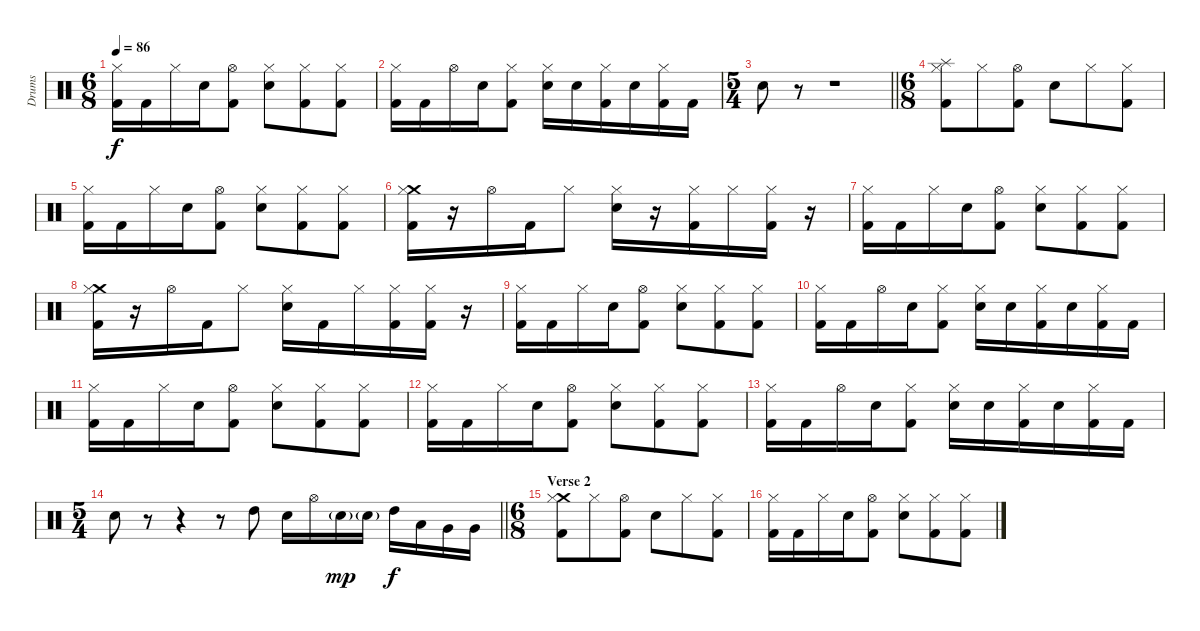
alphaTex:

\track ("Drums" "Drums") {instrument percussion}
\staff {score}
\articulation defaults
\ts (6 8)
\tempo 86
\clef neutral
\ks c
("Hi-Hat (closed)" "Kick (hit) 2").16{dy f} "Kick (hit) 2".16 "Hi-Hat (closed)".16 "Electric Snare (hit)".16 ("Hi-Hat (open)" "Kick (hit) 2").8 ("Hi-Hat (closed)" "Electric Snare (hit)").8 ("Hi-Hat (closed)" "Kick (hit) 2").8 ("Hi-Hat (closed)" "Kick (hit) 2").8 |
("Hi-Hat (closed)" "Kick (hit) 2").16 "Kick (hit) 2".16 "Hi-Hat (open)".16 "Electric Snare (hit)".16 ("Hi-Hat (closed)" "Kick (hit) 2").8 ("Hi-Hat (closed)" "Electric Snare (hit)").16 "Electric Snare (hit)".16 ("Hi-Hat (closed)" "Kick (hit) 2").16 "Electric Snare (hit)".16 ("Hi-Hat (closed)" "Kick (hit) 2").16 "Kick (hit) 2".16 |
\ts (5 4)
\barLineRight lightlight "Electric Snare (hit)".8
r.8 r.1 |
\ts (6 8)
("Splash (hit)" "Hi-Hat (closed)" "Kick (hit) 2").8 "Hi-Hat (closed)".8 ("Hi-Hat (open)" "Kick (hit) 2").8 "Electric Snare (hit)".8 "Hi-Hat (closed)".8 ("Hi-Hat (closed)" "Kick (hit) 2").8 |
("Hi-Hat (closed)" "Kick (hit) 2").16 "Kick (hit) 2".16 "Hi-Hat (closed)".16 "Electric Snare (hit)".16 ("Hi-Hat (open)" "Kick (hit) 2").8 ("Hi-Hat (closed)" "Electric Snare (hit)").8 ("Hi-Hat (closed)" "Kick (hit) 2").8 ("Hi-Hat (closed)" "Kick (hit) 2").8 |
("Crash medium (hit)" "Hi-Hat (closed)" "Kick (hit) 2").16 r.16 "Hi-Hat (open)".16 "Kick (hit) 2".16 "Hi-Hat (closed)".8 ("Hi-Hat (closed)" "Electric Snare (hit)").16 r.16 ("Hi-Hat (closed)" "Kick (hit) 2").16 "Hi-Hat (closed)".16 ("Hi-Hat (closed)" "Kick (hit) 2").16 r.16 |
("Hi-Hat (closed)" "Kick (hit) 2").16 "Kick (hit) 2".16 "Hi-Hat (closed)".16 "Electric Snare (hit)".16 ("Hi-Hat (open)" "Kick (hit) 2").8 ("Hi-Hat (closed)" "Electric Snare (hit)").8 ("Hi-Hat (closed)" "Kick (hit) 2").8 ("Hi-Hat (closed)" "Kick (hit) 2").8 |
("Crash medium (hit)" "Hi-Hat (closed)" "Kick (hit) 2").16 r.16 "Hi-Hat (open)".16 "Kick (hit) 2".16 "Hi-Hat (closed)".8 ("Hi-Hat (closed)" "Electric Snare (hit)").16 "Kick (hit) 2".16 "Hi-Hat (closed)".16 ("Hi-Hat (closed)" "Kick (hit) 2").16 ("Hi-Hat (closed)" "Kick (hit) 2").16 r.16 |
("Hi-Hat (closed)" "Kick (hit) 2").16 "Kick (hit) 2".16 "Hi-Hat (closed)".16 "Electric Snare (hit)".16 ("Hi-Hat (open)" "Kick (hit) 2").8 ("Hi-Hat (closed)" "Electric Snare (hit)").8 ("Hi-Hat (closed)" "Kick (hit) 2").8 ("Hi-Hat (closed)" "Kick (hit) 2").8 |
("Hi-Hat (closed)" "Kick (hit) 2").16 "Kick (hit) 2".16 "Hi-Hat (open)".16 "Electric Snare (hit)".16 ("Hi-Hat (closed)" "Kick (hit) 2").8 ("Hi-Hat (closed)" "Electric Snare (hit)").16 "Electric Snare (hit)".16 ("Hi-Hat (closed)" "Kick (hit) 2").16 "Electric Snare (hit)".16 ("Hi-Hat (closed)" "Kick (hit) 2").16 "Kick (hit) 2".16 |
("Hi-Hat (closed)" "Kick (hit) 2").16 "Kick (hit) 2".16 "Hi-Hat (closed)".16 "Electric Snare (hit)".16 ("Hi-Hat (open)" "Kick (hit) 2").8 ("Hi-Hat (closed)" "Electric Snare (hit)").8 ("Hi-Hat (closed)" "Kick (hit) 2").8 ("Hi-Hat (closed)" "Kick (hit) 2").8 |
("Hi-Hat (closed)" "Kick (hit) 2").16 "Kick (hit) 2".16 "Hi-Hat (closed)".16 "Electric Snare (hit)".16 ("Hi-Hat (open)" "Kick (hit) 2").8 ("Hi-Hat (closed)" "Electric Snare (hit)").8 ("Hi-Hat (closed)" "Kick (hit) 2").8 ("Hi-Hat (closed)" "Kick (hit) 2").8 |
("Hi-Hat (closed)" "Kick (hit) 2").16 "Kick (hit) 2".16 "Hi-Hat (open)".16 "Electric Snare (hit)".16 ("Hi-Hat (closed)" "Kick (hit) 2").8 ("Hi-Hat (closed)" "Electric Snare (hit)").16 "Electric Snare (hit)".16 ("Hi-Hat (closed)" "Kick (hit) 2").16 "Electric Snare (hit)".16 ("Hi-Hat (closed)" "Kick (hit) 2").16 "Kick (hit) 2".16 |
\ts (5 4)
\barLineRight lightlight "Electric Snare (hit)".8
r.8 r.4 r.8 "High Tom (hit)".8 "Electric Snare (hit)".16 "Hi-Hat (open)".16 "Electric Snare (hit)"{g}.16{dy mp} "Electric Snare (hit)"{g}.16 "High Tom (hit)".16{dy f} "Low Tom (hit)".16 "Very Low Tom (hit)".16 "Very Low Tom (hit)".16 |
\ts (6 8)
\section ("" "Verse 2")
("Crash medium (hit)" "Hi-Hat (closed)" "Kick (hit) 2").8 "Hi-Hat (closed)".8 ("Hi-Hat (open)" "Kick (hit) 2").8 "Electric Snare (hit)".8 "Hi-Hat (closed)".8 ("Hi-Hat (closed)" "Kick (hit) 2").8 |
("Hi-Hat (closed)" "Kick (hit) 2").16 "Kick (hit) 2".16 "Hi-Hat (closed)".16 "Electric Snare (hit)".16 ("Hi-Hat (open)" "Kick (hit) 2").8 ("Hi-Hat (closed)" "Electric Snare (hit)").8 ("Hi-Hat (closed)" "Kick (hit) 2").8 ("Hi-Hat (closed)" "Kick (hit) 2").8
